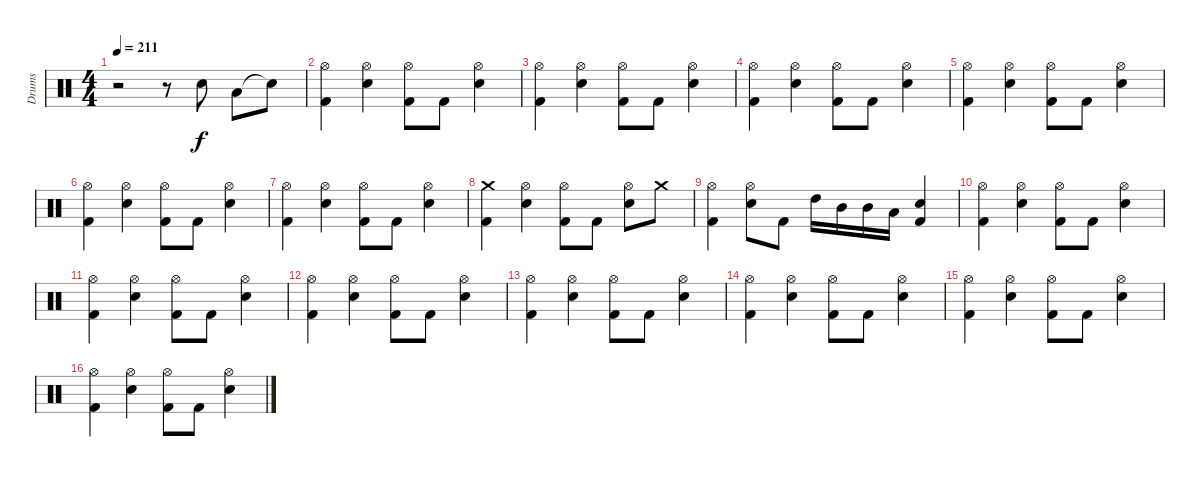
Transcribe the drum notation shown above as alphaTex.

\track ("Drums" "Drums") {instrument percussion}
\staff {score}
\articulation defaults
\ts (4 4)
\tempo 211
\clef neutral
\ks c
r.2{dy f} r.8 "Electric Snare (hit)".8 "Low Floor Tom (hit)".8 "Snare (hit)"{t}.8 |
("Hi-Hat (open)" "Kick (hit) 2").4 ("Hi-Hat (open)" "Snare (hit) 2").4 ("Hi-Hat (open)" "Kick (hit) 2").8 "Kick (hit) 2".8 ("Hi-Hat (open)" "Snare (hit) 2").4 |
("Hi-Hat (open)" "Kick (hit) 2").4 ("Hi-Hat (open)" "Snare (hit) 2").4 ("Hi-Hat (open)" "Kick (hit) 2").8 "Kick (hit) 2".8 ("Hi-Hat (open)" "Snare (hit) 2").4 |
("Hi-Hat (open)" "Kick (hit) 2").4 ("Hi-Hat (open)" "Snare (hit) 2").4 ("Hi-Hat (open)" "Kick (hit) 2").8 "Kick (hit) 2".8 ("Hi-Hat (open)" "Snare (hit) 2").4 |
("Hi-Hat (open)" "Kick (hit) 2").4 ("Hi-Hat (open)" "Snare (hit) 2").4 ("Hi-Hat (open)" "Kick (hit) 2").8 "Kick (hit) 2".8 ("Hi-Hat (open)" "Snare (hit) 2").4 |
("Hi-Hat (open)" "Kick (hit) 2").4 ("Hi-Hat (open)" "Snare (hit) 2").4 ("Hi-Hat (open)" "Kick (hit) 2").8 "Kick (hit) 2".8 ("Hi-Hat (open)" "Snare (hit) 2").4 |
("Hi-Hat (open)" "Kick (hit) 2").4 ("Hi-Hat (open)" "Snare (hit) 2").4 ("Hi-Hat (open)" "Kick (hit) 2").8 "Kick (hit) 2".8 ("Hi-Hat (open)" "Snare (hit) 2").4 |
("Crash medium (hit)" "Kick (hit) 2").4 ("Hi-Hat (open)" "Snare (hit) 2").4 ("Hi-Hat (open)" "Kick (hit) 2").8 "Kick (hit) 2".8 ("Hi-Hat (open)" "Snare (hit) 2").8 "Crash medium (hit)".8 |
("Hi-Hat (open)" "Kick (hit) 2").4 ("Hi-Hat (open)" "Snare (hit) 2").8 "Kick (hit) 2".8 "High Tom (hit)".16 "Mid Tom (hit)".16 "Mid Tom (hit)".16 "Low Tom (hit)".16 ("Snare (hit) 2" "Kick (hit) 2").4 |
("Hi-Hat (open)" "Kick (hit) 2").4 ("Hi-Hat (open)" "Snare (hit) 2").4 ("Hi-Hat (open)" "Kick (hit) 2").8 "Kick (hit) 2".8 ("Hi-Hat (open)" "Snare (hit) 2").4 |
("Hi-Hat (open)" "Kick (hit) 2").4 ("Hi-Hat (open)" "Snare (hit) 2").4 ("Hi-Hat (open)" "Kick (hit) 2").8 "Kick (hit) 2".8 ("Hi-Hat (open)" "Snare (hit) 2").4 |
("Hi-Hat (open)" "Kick (hit) 2").4 ("Hi-Hat (open)" "Snare (hit) 2").4 ("Hi-Hat (open)" "Kick (hit) 2").8 "Kick (hit) 2".8 ("Hi-Hat (open)" "Snare (hit) 2").4 |
("Hi-Hat (open)" "Kick (hit) 2").4 ("Hi-Hat (open)" "Snare (hit) 2").4 ("Hi-Hat (open)" "Kick (hit) 2").8 "Kick (hit) 2".8 ("Hi-Hat (open)" "Snare (hit) 2").4 |
("Hi-Hat (open)" "Kick (hit) 2").4 ("Hi-Hat (open)" "Snare (hit) 2").4 ("Hi-Hat (open)" "Kick (hit) 2").8 "Kick (hit) 2".8 ("Hi-Hat (open)" "Snare (hit) 2").4 |
("Hi-Hat (open)" "Kick (hit) 2").4 ("Hi-Hat (open)" "Snare (hit) 2").4 ("Hi-Hat (open)" "Kick (hit) 2").8 "Kick (hit) 2".8 ("Hi-Hat (open)" "Snare (hit) 2").4 |
("Hi-Hat (open)" "Kick (hit) 2").4 ("Hi-Hat (open)" "Snare (hit) 2").4 ("Hi-Hat (open)" "Kick (hit) 2").8 "Kick (hit) 2".8 ("Hi-Hat (open)" "Snare (hit) 2").4
